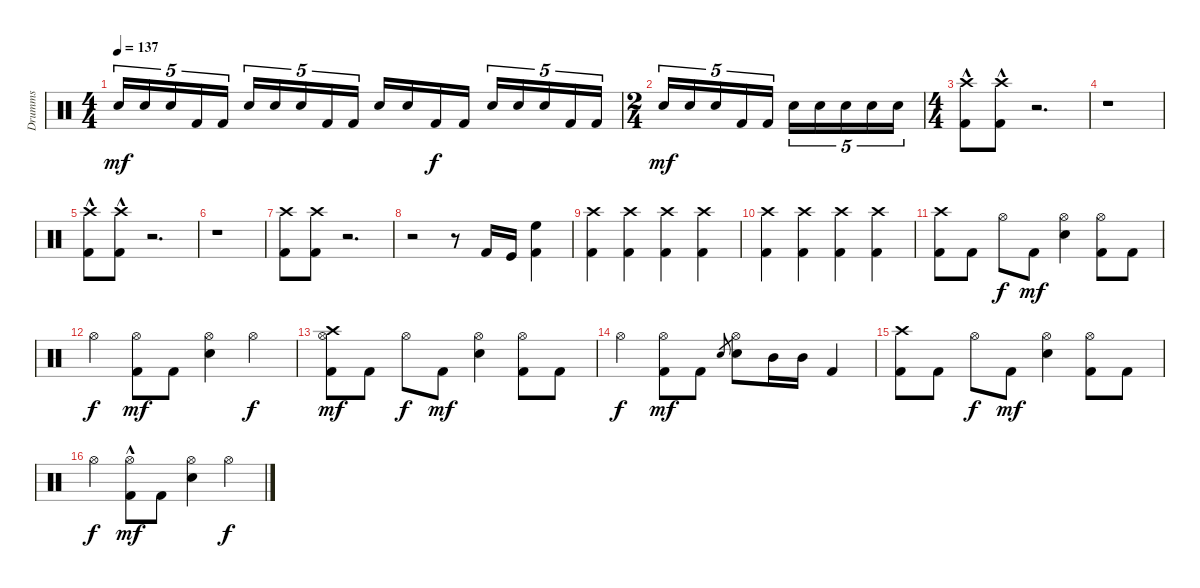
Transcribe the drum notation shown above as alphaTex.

\track ("Drumms" "Drumms") {instrument percussion}
\staff {score}
\articulation defaults
\ts (4 4)
\tempo 137
\clef neutral
\ks c "Snare (hit) 2".16{tu (5 4) dy mf} "Snare (hit) 2".16{tu (5 4)} "Snare (hit) 2".16{tu (5 4)} "Kick (hit) 2".16{tu (5 4)} "Kick (hit) 2".16{tu (5 4)} "Snare (hit) 2".16{tu (5 4)} "Snare (hit) 2".16{tu (5 4)} "Snare (hit) 2".16{tu (5 4)} "Kick (hit) 2".16{tu (5 4)} "Kick (hit) 2".16{tu (5 4)} "Snare (hit) 2".16 "Snare (hit) 2".16 "Kick (hit) 2".16{dy f} "Kick (hit) 2".16 "Snare (hit) 2".16{tu (5 4)} "Snare (hit) 2".16{tu (5 4)} "Snare (hit) 2".16{tu (5 4)} "Kick (hit) 2".16{tu (5 4)} "Kick (hit) 2".16{tu (5 4)}
|
\ts (2 4)
"Snare (hit) 2".16{tu (5 4) dy mf} "Snare (hit) 2".16{tu (5 4)} "Snare (hit) 2".16{tu (5 4)} "Kick (hit) 2".16{tu (5 4)} "Kick (hit) 2".16{tu (5 4)} "Snare (hit) 2".16{tu (5 4)} "Snare (hit) 2".16{tu (5 4)} "Snare (hit) 2".16{tu (5 4)} "Snare (hit) 2".16{tu (5 4)} "Snare (hit) 2".16{tu (5 4)} |
\ts (4 4)
("Kick (hit) 2"{hac} "Crash high (hit)").8 ("Crash high (hit)"{hac} "Kick (hit) 2").8 r.2{d} |
r.1 |
("Kick (hit) 2"{hac} "Crash high (hit)").8 ("Crash high (hit)"{hac} "Kick (hit) 2").8 r.2{d} |
r.1 |
("Kick (hit) 2" "Crash high (hit)").8 ("Crash high (hit)" "Kick (hit) 2").8 r.2{d} |
r.2 r.8 "Kick (hit) 2".16 "Kick (hit)".16 ("High Floor Tom (hit)" "Kick (hit) 2").4 |
("Crash high (hit)" "Kick (hit) 2").4 ("Crash high (hit)" "Kick (hit) 2").4 ("Crash high (hit)" "Kick (hit) 2").4 ("Crash high (hit)" "Kick (hit) 2").4 |
("Kick (hit) 2" "Crash high (hit)").4 ("Crash high (hit)" "Kick (hit) 2").4 ("Crash high (hit)" "Kick (hit) 2").4 ("Crash high (hit)" "Kick (hit) 2").4 |
("Crash high (hit)" "Kick (hit) 2").8 "Kick (hit) 2".8 "Hi-Hat (open)".8{dy f} "Kick (hit) 2".8{dy mf} ("Snare (hit) 2" "Hi-Hat (open)").4 ("Kick (hit) 2" "Hi-Hat (open)").8 "Kick (hit) 2".8 |
"Hi-Hat (open)".4{dy f} ("Kick (hit) 2" "Hi-Hat (open)").8{dy mf} "Kick (hit) 2".8 ("Snare (hit) 2" "Hi-Hat (open)").4 "Hi-Hat (open)".4{dy f} |
("Crash high (hit)" "Kick (hit) 2" "Hi-Hat (open)").8{dy mf} "Kick (hit) 2".8 "Hi-Hat (open)".8{dy f} "Kick (hit) 2".8{dy mf} ("Snare (hit) 2" "Hi-Hat (open)").4 ("Kick (hit) 2" "Hi-Hat (open)").8 "Kick (hit) 2".8 |
"Hi-Hat (open)".4{dy f} ("Kick (hit) 2" "Hi-Hat (open)").8{dy mf} "Kick (hit) 2".8 "Snare (hit) 2".8{gr} ("Snare (hit) 2" "Hi-Hat (open)").8 "Mid Tom (hit)".16 "Mid Tom (hit)".16 "Kick (hit) 2".4 |
("Crash high (hit)" "Kick (hit) 2").8 "Kick (hit) 2".8 "Hi-Hat (open)".8{dy f} "Kick (hit) 2".8{dy mf} ("Snare (hit) 2" "Hi-Hat (open)").4 ("Kick (hit) 2" "Hi-Hat (open)").8 "Kick (hit) 2".8 |
"Hi-Hat (open)".4{dy f} ("Kick (hit) 2"{hac} "Hi-Hat (open)").8{dy mf} "Kick (hit) 2".8 ("Snare (hit) 2" "Hi-Hat (open)").4 "Hi-Hat (open)".4{dy f}
